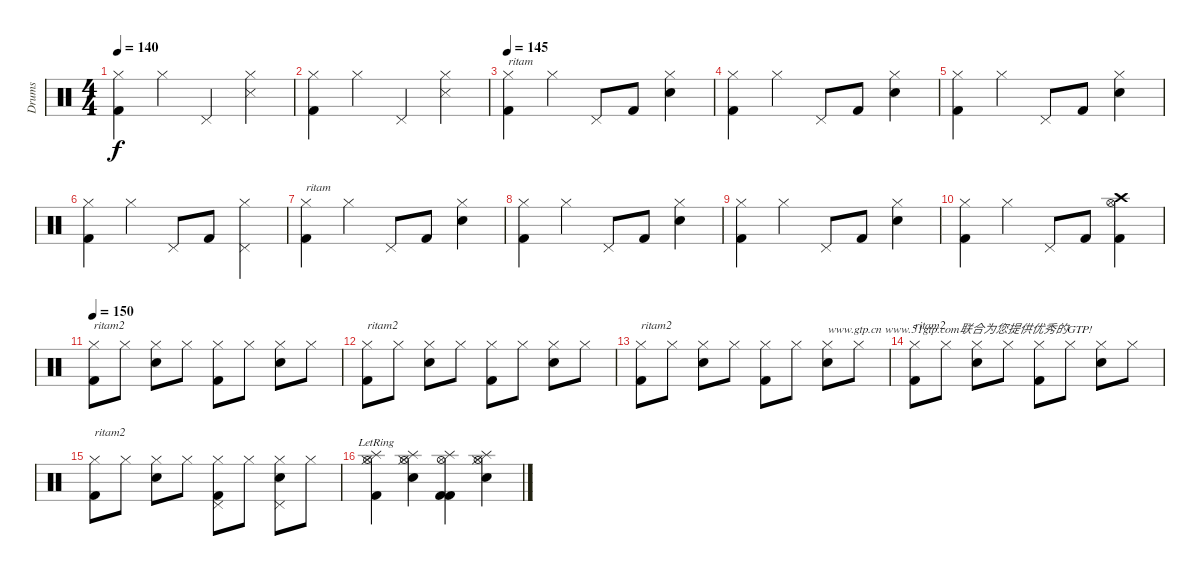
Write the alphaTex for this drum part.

\track ("Drums" "Drums") {instrument percussion}
\staff {score}
\articulation defaults
\ts (4 4)
\tempo 140
\clef neutral
\ks c
("Kick (hit) 2" "Hi-Hat (closed)").4{dy f} "Hi-Hat (closed)".4 "Pedal Hi-Hat (hit)".4 ("Hi-Hat (closed)" "Snare (side stick) 3").4 |
("Kick (hit) 2" "Hi-Hat (closed)").4 "Hi-Hat (closed)".4 "Pedal Hi-Hat (hit)".4 ("Hi-Hat (closed)" "Snare (side stick) 3").4 |
\tempo 145
("Kick (hit) 2" "Hi-Hat (closed)").4{txt "ritam"} "Hi-Hat (closed)".4 "Pedal Hi-Hat (hit)".8 "Kick (hit) 2".8 ("Snare (hit) 2" "Hi-Hat (closed)").4 |
("Kick (hit) 2" "Hi-Hat (closed)").4 "Hi-Hat (closed)".4 "Pedal Hi-Hat (hit)".8 "Kick (hit) 2".8 ("Snare (hit) 2" "Hi-Hat (closed)").4 |
("Kick (hit) 2" "Hi-Hat (closed)").4 "Hi-Hat (closed)".4 "Pedal Hi-Hat (hit)".8 "Kick (hit) 2".8 ("Snare (hit) 2" "Hi-Hat (closed)").4 |
("Kick (hit) 2" "Hi-Hat (closed)").4 "Hi-Hat (closed)".4 "Pedal Hi-Hat (hit)".8 "Kick (hit) 2".8 ("Pedal Hi-Hat (hit)" "Hi-Hat (closed)").4 |
("Kick (hit) 2" "Hi-Hat (closed)").4{txt "ritam"} "Hi-Hat (closed)".4 "Pedal Hi-Hat (hit)".8 "Kick (hit) 2".8 ("Snare (hit) 2" "Hi-Hat (closed)").4 |
("Kick (hit) 2" "Hi-Hat (closed)").4 "Hi-Hat (closed)".4 "Pedal Hi-Hat (hit)".8 "Kick (hit) 2".8 ("Snare (hit) 2" "Hi-Hat (closed)").4 |
("Kick (hit) 2" "Hi-Hat (closed)").4 "Hi-Hat (closed)".4 "Pedal Hi-Hat (hit)".8 "Kick (hit) 2".8 ("Snare (hit) 2" "Hi-Hat (closed)").4 |
("Kick (hit) 2" "Hi-Hat (closed)").4 "Hi-Hat (closed)".4 "Pedal Hi-Hat (hit)".8 "Kick (hit) 2".8 ("Hi-Hat (open)" "Crash high (hit)" "Kick (hit) 2").4 |
\tempo 150
("Kick (hit) 2" "Hi-Hat (closed)").8{txt "ritam2"} "Hi-Hat (closed)".8 ("Snare (hit) 2" "Hi-Hat (closed)").8 "Hi-Hat (closed)".8 ("Kick (hit) 2" "Hi-Hat (closed)").8 "Hi-Hat (closed)".8 ("Snare (hit) 2" "Hi-Hat (closed)").8 "Hi-Hat (closed)".8 |
("Kick (hit) 2" "Hi-Hat (closed)").8{txt "ritam2"} "Hi-Hat (closed)".8 ("Snare (hit) 2" "Hi-Hat (closed)").8 "Hi-Hat (closed)".8 ("Kick (hit) 2" "Hi-Hat (closed)").8 "Hi-Hat (closed)".8 ("Snare (hit) 2" "Hi-Hat (closed)").8 "Hi-Hat (closed)".8 |
("Kick (hit) 2" "Hi-Hat (closed)").8{txt "ritam2"} "Hi-Hat (closed)".8 ("Snare (hit) 2" "Hi-Hat (closed)").8 "Hi-Hat (closed)".8 ("Kick (hit) 2" "Hi-Hat (closed)").8 "Hi-Hat (closed)".8 ("Snare (hit) 2" "Hi-Hat (closed)").8{txt "www.gtp.cn www.51gtp.com联合为您提供优秀的GTP!"} "Hi-Hat (closed)".8 |
("Kick (hit) 2" "Hi-Hat (closed)").8{txt "ritam2"} "Hi-Hat (closed)".8 ("Snare (hit) 2" "Hi-Hat (closed)").8 "Hi-Hat (closed)".8 ("Kick (hit) 2" "Hi-Hat (closed)").8 "Hi-Hat (closed)".8 ("Snare (hit) 2" "Hi-Hat (closed)").8 "Hi-Hat (closed)".8 |
("Kick (hit) 2" "Hi-Hat (closed)").8{txt "ritam2"} "Hi-Hat (closed)".8 ("Snare (hit) 2" "Hi-Hat (closed)").8 "Hi-Hat (closed)".8 ("Kick (hit) 2" "Hi-Hat (closed)" "Pedal Hi-Hat (hit)").8 "Hi-Hat (closed)".8 ("Snare (hit) 2" "Hi-Hat (closed)" "Pedal Hi-Hat (hit)").8 "Hi-Hat (closed)".8 |
("Kick (hit) 2" "Hi-Hat (closed)" "Splash (hit)"{lr} "Hi-Hat (open)").4 ("Snare (hit) 2" "Hi-Hat (closed)" "Splash (hit)" "Hi-Hat (open)").4 ("Kick (hit) 2" "Kick (hit) 2" "Splash (hit)" "Hi-Hat (open)").4 ("Snare (hit) 2" "Hi-Hat (closed)" "Splash (hit)" "Hi-Hat (open)").4
